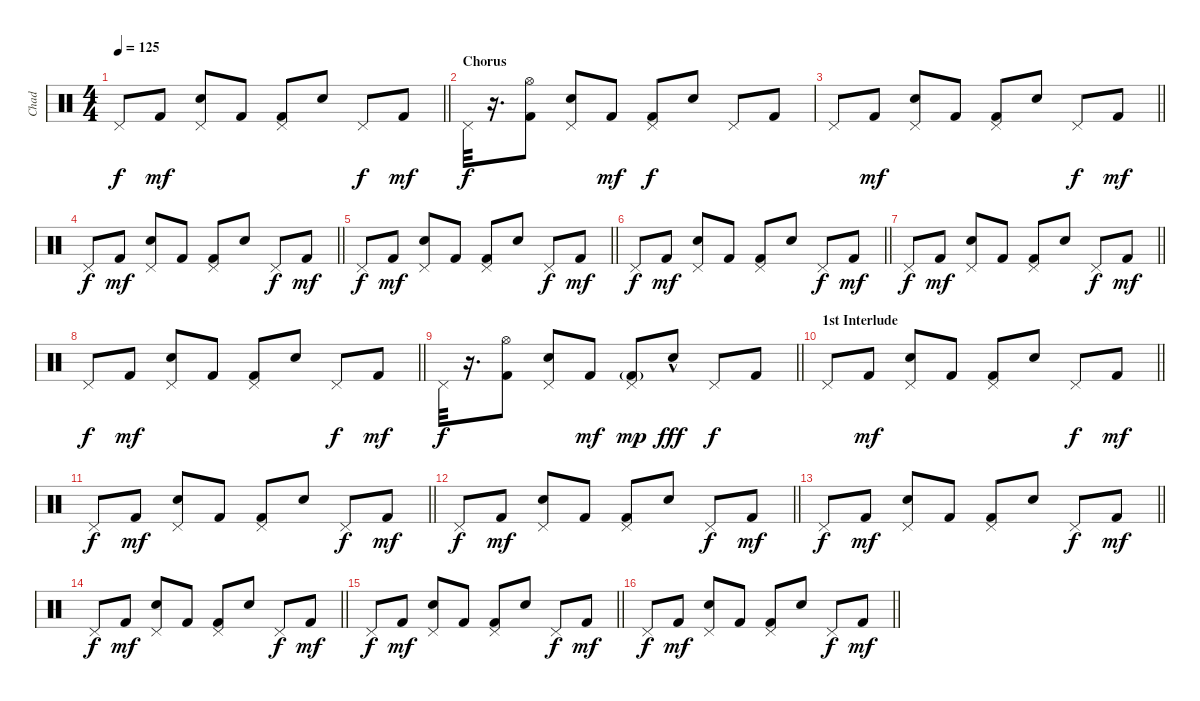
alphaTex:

\track ("Chad" "Chad") {instrument percussion}
\staff {score}
\articulation defaults
\ts (4 4)
\tempo 125
\clef neutral
\barLineRight lightlight
\ks c "Pedal Hi-Hat (hit)".8{dy f} "Kick (hit) 2".8{dy mf}
("Electric Snare (hit)" "Pedal Hi-Hat (hit)").8 "Kick (hit) 2".8 ("Kick (hit) 2" "Pedal Hi-Hat (hit)").8 "Electric Snare (hit)".8 "Pedal Hi-Hat (hit)".8{dy f} "Kick (hit) 2".8{dy mf} |
\section ("" "Chorus")
"Pedal Hi-Hat (hit)".32{dy f} r.16{d} ("Kick (hit) 2" "Hi-Hat (open)").8 ("Electric Snare (hit)" "Pedal Hi-Hat (hit)").8 "Kick (hit) 2".8{dy mf} ("Kick (hit) 2" "Pedal Hi-Hat (hit)").8{dy f} "Electric Snare (hit)".8 "Pedal Hi-Hat (hit)".8 "Kick (hit) 2".8 |
\barLineRight lightlight "Pedal Hi-Hat (hit)".8 "Kick (hit) 2".8{dy mf}
("Electric Snare (hit)" "Pedal Hi-Hat (hit)").8 "Kick (hit) 2".8 ("Kick (hit) 2" "Pedal Hi-Hat (hit)").8 "Electric Snare (hit)".8 "Pedal Hi-Hat (hit)".8{dy f} "Kick (hit) 2".8{dy mf} |
\barLineRight lightlight "Pedal Hi-Hat (hit)".8{dy f} "Kick (hit) 2".8{dy mf}
("Electric Snare (hit)" "Pedal Hi-Hat (hit)").8 "Kick (hit) 2".8 ("Kick (hit) 2" "Pedal Hi-Hat (hit)").8 "Electric Snare (hit)".8 "Pedal Hi-Hat (hit)".8{dy f} "Kick (hit) 2".8{dy mf} |
\barLineRight lightlight "Pedal Hi-Hat (hit)".8{dy f} "Kick (hit) 2".8{dy mf}
("Electric Snare (hit)" "Pedal Hi-Hat (hit)").8 "Kick (hit) 2".8 ("Kick (hit) 2" "Pedal Hi-Hat (hit)").8 "Electric Snare (hit)".8 "Pedal Hi-Hat (hit)".8{dy f} "Kick (hit) 2".8{dy mf} |
\barLineRight lightlight "Pedal Hi-Hat (hit)".8{dy f} "Kick (hit) 2".8{dy mf}
("Electric Snare (hit)" "Pedal Hi-Hat (hit)").8 "Kick (hit) 2".8 ("Kick (hit) 2" "Pedal Hi-Hat (hit)").8 "Electric Snare (hit)".8 "Pedal Hi-Hat (hit)".8{dy f} "Kick (hit) 2".8{dy mf} |
\barLineRight lightlight "Pedal Hi-Hat (hit)".8{dy f} "Kick (hit) 2".8{dy mf}
("Electric Snare (hit)" "Pedal Hi-Hat (hit)").8 "Kick (hit) 2".8 ("Kick (hit) 2" "Pedal Hi-Hat (hit)").8 "Electric Snare (hit)".8 "Pedal Hi-Hat (hit)".8{dy f} "Kick (hit) 2".8{dy mf} |
\barLineRight lightlight "Pedal Hi-Hat (hit)".8{dy f} "Kick (hit) 2".8{dy mf}
("Electric Snare (hit)" "Pedal Hi-Hat (hit)").8 "Kick (hit) 2".8 ("Kick (hit) 2" "Pedal Hi-Hat (hit)").8 "Electric Snare (hit)".8 "Pedal Hi-Hat (hit)".8{dy f} "Kick (hit) 2".8{dy mf} |
\barLineRight lightlight "Pedal Hi-Hat (hit)".32{dy f}
r.16{d} ("Kick (hit) 2" "Hi-Hat (open)").8 ("Electric Snare (hit)" "Pedal Hi-Hat (hit)").8 "Kick (hit) 2".8{dy mf} ("Kick (hit) 2"{g} "Pedal Hi-Hat (hit)").8{dy mp} "Electric Snare (hit)"{hac}.8{dy fff} "Pedal Hi-Hat (hit)".8{dy f} "Kick (hit) 2".8 |
\section ("" "1st Interlude")
\barLineRight lightlight "Pedal Hi-Hat (hit)".8 "Kick (hit) 2".8{dy mf}
("Electric Snare (hit)" "Pedal Hi-Hat (hit)").8 "Kick (hit) 2".8 ("Kick (hit) 2" "Pedal Hi-Hat (hit)").8 "Electric Snare (hit)".8 "Pedal Hi-Hat (hit)".8{dy f} "Kick (hit) 2".8{dy mf} |
\barLineRight lightlight "Pedal Hi-Hat (hit)".8{dy f} "Kick (hit) 2".8{dy mf}
("Electric Snare (hit)" "Pedal Hi-Hat (hit)").8 "Kick (hit) 2".8 ("Kick (hit) 2" "Pedal Hi-Hat (hit)").8 "Electric Snare (hit)".8 "Pedal Hi-Hat (hit)".8{dy f} "Kick (hit) 2".8{dy mf} |
\barLineRight lightlight "Pedal Hi-Hat (hit)".8{dy f} "Kick (hit) 2".8{dy mf}
("Electric Snare (hit)" "Pedal Hi-Hat (hit)").8 "Kick (hit) 2".8 ("Kick (hit) 2" "Pedal Hi-Hat (hit)").8 "Electric Snare (hit)".8 "Pedal Hi-Hat (hit)".8{dy f} "Kick (hit) 2".8{dy mf} |
\barLineRight lightlight "Pedal Hi-Hat (hit)".8{dy f} "Kick (hit) 2".8{dy mf}
("Electric Snare (hit)" "Pedal Hi-Hat (hit)").8 "Kick (hit) 2".8 ("Kick (hit) 2" "Pedal Hi-Hat (hit)").8 "Electric Snare (hit)".8 "Pedal Hi-Hat (hit)".8{dy f} "Kick (hit) 2".8{dy mf} |
\barLineRight lightlight "Pedal Hi-Hat (hit)".8{dy f} "Kick (hit) 2".8{dy mf}
("Electric Snare (hit)" "Pedal Hi-Hat (hit)").8 "Kick (hit) 2".8 ("Kick (hit) 2" "Pedal Hi-Hat (hit)").8 "Electric Snare (hit)".8 "Pedal Hi-Hat (hit)".8{dy f} "Kick (hit) 2".8{dy mf} |
\barLineRight lightlight "Pedal Hi-Hat (hit)".8{dy f} "Kick (hit) 2".8{dy mf}
("Electric Snare (hit)" "Pedal Hi-Hat (hit)").8 "Kick (hit) 2".8 ("Kick (hit) 2" "Pedal Hi-Hat (hit)").8 "Electric Snare (hit)".8 "Pedal Hi-Hat (hit)".8{dy f} "Kick (hit) 2".8{dy mf} |
\barLineRight lightlight "Pedal Hi-Hat (hit)".8{dy f} "Kick (hit) 2".8{dy mf}
("Electric Snare (hit)" "Pedal Hi-Hat (hit)").8 "Kick (hit) 2".8 ("Kick (hit) 2" "Pedal Hi-Hat (hit)").8 "Electric Snare (hit)".8 "Pedal Hi-Hat (hit)".8{dy f} "Kick (hit) 2".8{dy mf}
